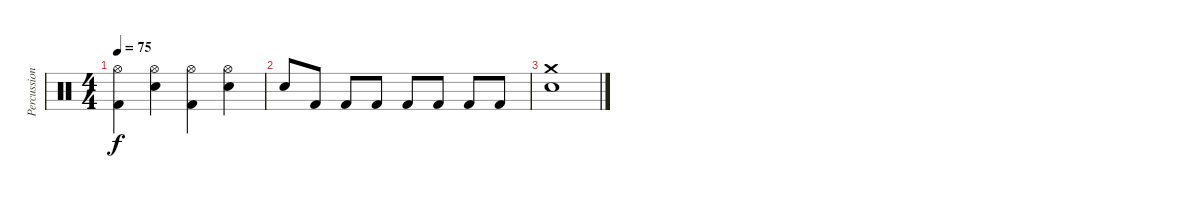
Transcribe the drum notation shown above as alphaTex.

\track ("Percussion" "Percussion") {instrument percussion}
\staff {score}
\articulation defaults
\ts (4 4)
\tempo 75
\clef neutral
\ks c
("Hi-Hat (open)" "Kick (hit) 2").4{dy f} ("Hi-Hat (open)" "Electric Snare (hit)").4 ("Hi-Hat (open)" "Kick (hit) 2").4 ("Hi-Hat (open)" "Electric Snare (hit)").4 |
"Electric Snare (hit)".8 "Kick (hit) 2".8 "Kick (hit) 2".8 "Kick (hit) 2".8 "Kick (hit) 2".8 "Kick (hit) 2".8 "Kick (hit) 2".8 "Kick (hit) 2".8 |
("Crash medium (hit)" "Electric Snare (hit)").1
